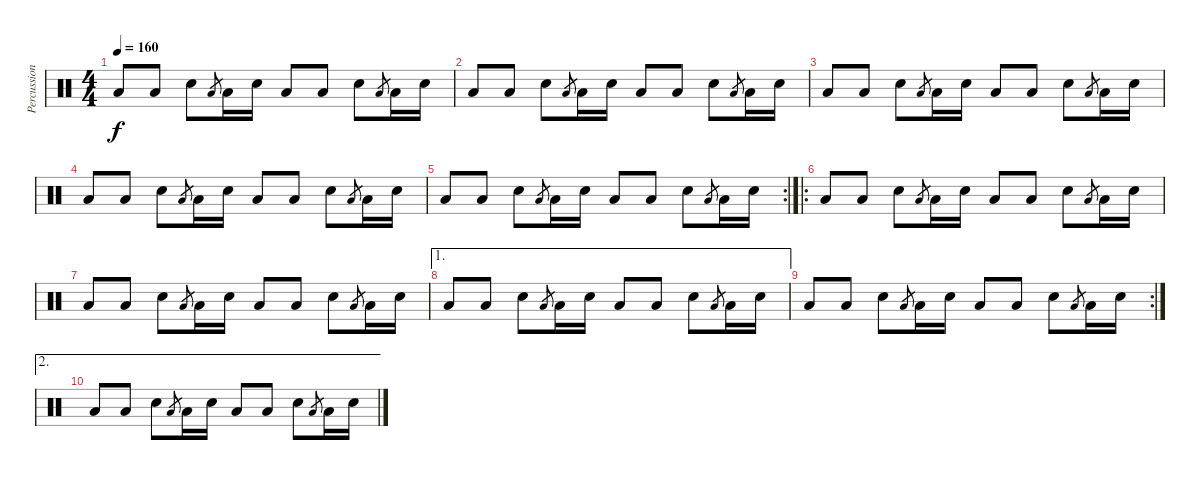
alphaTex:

\track ("Percussion" "Percussion") {instrument percussion}
\staff {score}
\articulation defaults
\ts (4 4)
\tempo 160
\clef neutral
\ks c "Low Floor Tom (hit)".8{dy f} "Low Floor Tom (hit)".8 "Snare (hit) 2".8 "Low Floor Tom (hit)".8{gr} "Low Floor Tom (hit)".16 "Snare (hit) 2".16 "Low Floor Tom (hit)".8 "Low Floor Tom (hit)".8 "Snare (hit) 2".8 "Low Floor Tom (hit)".8{gr} "Low Floor Tom (hit)".16 "Snare (hit) 2".16
|
"Low Floor Tom (hit)".8 "Low Floor Tom (hit)".8 "Snare (hit) 2".8 "Low Floor Tom (hit)".8{gr} "Low Floor Tom (hit)".16 "Snare (hit) 2".16 "Low Floor Tom (hit)".8 "Low Floor Tom (hit)".8 "Snare (hit) 2".8 "Low Floor Tom (hit)".8{gr} "Low Floor Tom (hit)".16 "Snare (hit) 2".16 |
"Low Floor Tom (hit)".8 "Low Floor Tom (hit)".8 "Snare (hit) 2".8 "Low Floor Tom (hit)".8{gr} "Low Floor Tom (hit)".16 "Snare (hit) 2".16 "Low Floor Tom (hit)".8 "Low Floor Tom (hit)".8 "Snare (hit) 2".8 "Low Floor Tom (hit)".8{gr} "Low Floor Tom (hit)".16 "Snare (hit) 2".16 |
"Low Floor Tom (hit)".8 "Low Floor Tom (hit)".8 "Snare (hit) 2".8 "Low Floor Tom (hit)".8{gr} "Low Floor Tom (hit)".16 "Snare (hit) 2".16 "Low Floor Tom (hit)".8 "Low Floor Tom (hit)".8 "Snare (hit) 2".8 "Low Floor Tom (hit)".8{gr} "Low Floor Tom (hit)".16 "Snare (hit) 2".16 |
\rc 2 "Low Floor Tom (hit)".8 "Low Floor Tom (hit)".8 "Snare (hit) 2".8 "Low Floor Tom (hit)".8{gr} "Low Floor Tom (hit)".16 "Snare (hit) 2".16 "Low Floor Tom (hit)".8 "Low Floor Tom (hit)".8 "Snare (hit) 2".8 "Low Floor Tom (hit)".8{gr} "Low Floor Tom (hit)".16 "Snare (hit) 2".16
|
\ro "Low Floor Tom (hit)".8 "Low Floor Tom (hit)".8 "Snare (hit) 2".8 "Low Floor Tom (hit)".8{gr} "Low Floor Tom (hit)".16 "Snare (hit) 2".16 "Low Floor Tom (hit)".8 "Low Floor Tom (hit)".8 "Snare (hit) 2".8 "Low Floor Tom (hit)".8{gr} "Low Floor Tom (hit)".16 "Snare (hit) 2".16
|
"Low Floor Tom (hit)".8 "Low Floor Tom (hit)".8 "Snare (hit) 2".8 "Low Floor Tom (hit)".8{gr} "Low Floor Tom (hit)".16 "Snare (hit) 2".16 "Low Floor Tom (hit)".8 "Low Floor Tom (hit)".8 "Snare (hit) 2".8 "Low Floor Tom (hit)".8{gr} "Low Floor Tom (hit)".16 "Snare (hit) 2".16 |
\ae 1 "Low Floor Tom (hit)".8 "Low Floor Tom (hit)".8 "Snare (hit) 2".8 "Low Floor Tom (hit)".8{gr} "Low Floor Tom (hit)".16 "Snare (hit) 2".16 "Low Floor Tom (hit)".8 "Low Floor Tom (hit)".8 "Snare (hit) 2".8 "Low Floor Tom (hit)".8{gr} "Low Floor Tom (hit)".16 "Snare (hit) 2".16
|
\rc 2 "Low Floor Tom (hit)".8 "Low Floor Tom (hit)".8 "Snare (hit) 2".8 "Low Floor Tom (hit)".8{gr} "Low Floor Tom (hit)".16 "Snare (hit) 2".16 "Low Floor Tom (hit)".8 "Low Floor Tom (hit)".8 "Snare (hit) 2".8 "Low Floor Tom (hit)".8{gr} "Low Floor Tom (hit)".16 "Snare (hit) 2".16
|
\ae 2 "Low Floor Tom (hit)".8 "Low Floor Tom (hit)".8 "Snare (hit) 2".8 "Low Floor Tom (hit)".8{gr} "Low Floor Tom (hit)".16 "Snare (hit) 2".16 "Low Floor Tom (hit)".8 "Low Floor Tom (hit)".8 "Snare (hit) 2".8 "Low Floor Tom (hit)".8{gr} "Low Floor Tom (hit)".16 "Snare (hit) 2".16
